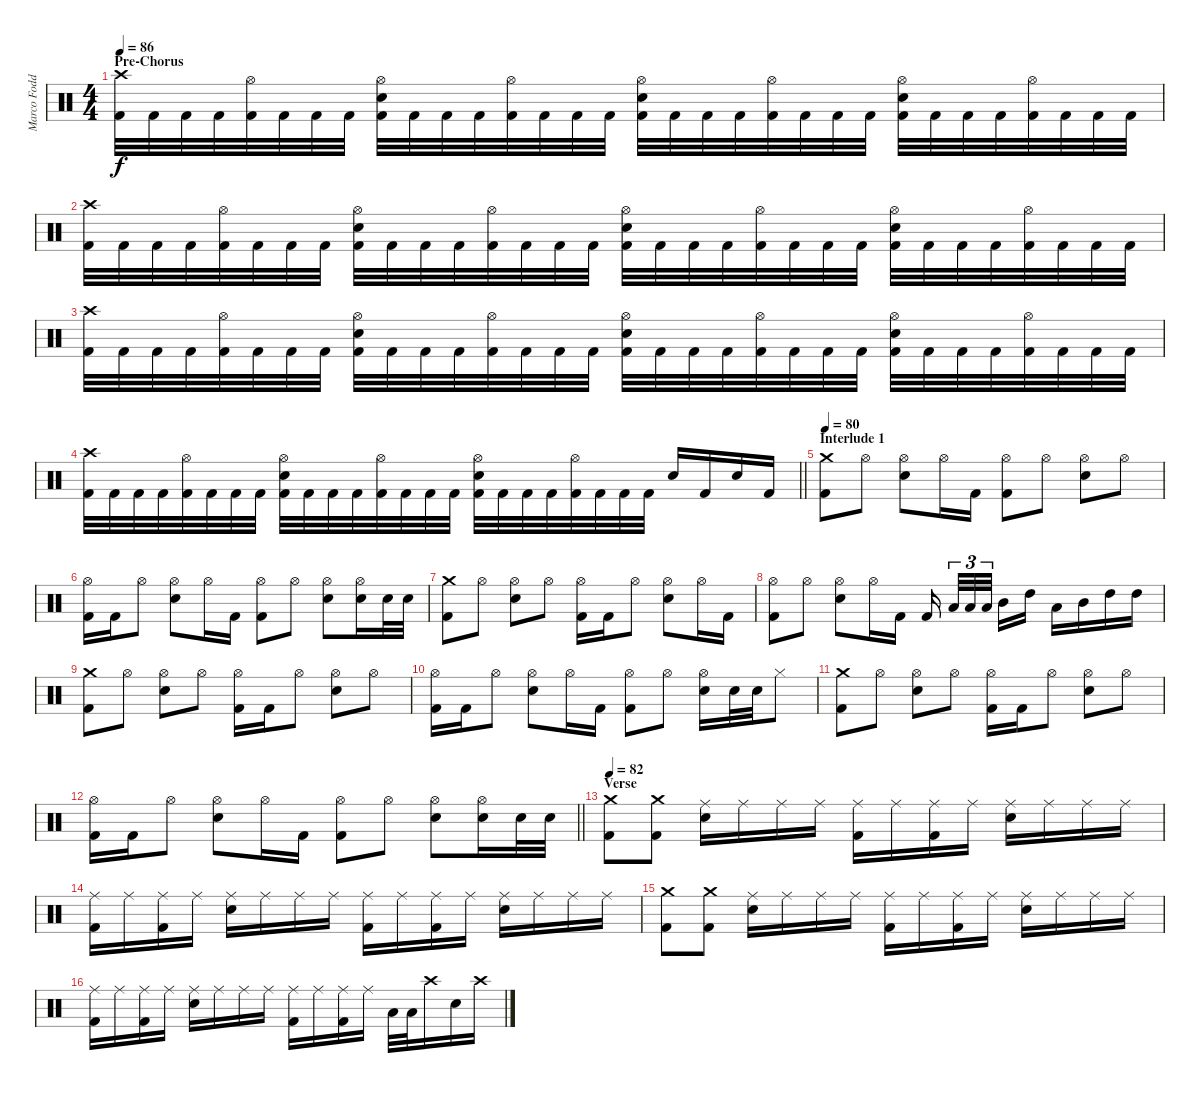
\track ("Marco Foddis" "Marco Fodd") {instrument percussion}
\staff {score}
\articulation defaults
\ts (4 4)
\section ("" "Pre-Chorus")
\tempo 86
\clef neutral
\ks c
("Crash high (hit)" "Kick (hit) 2").32{dy f} "Kick (hit) 2".32 "Kick (hit) 2".32 "Kick (hit) 2".32 ("Hi-Hat (open)" "Kick (hit) 2").32 "Kick (hit) 2".32 "Kick (hit) 2".32 "Kick (hit) 2".32 ("Hi-Hat (open)" "Electric Snare (hit)" "Kick (hit) 2").32 "Kick (hit) 2".32 "Kick (hit) 2".32 "Kick (hit) 2".32 ("Hi-Hat (open)" "Kick (hit) 2").32 "Kick (hit) 2".32 "Kick (hit) 2".32 "Kick (hit) 2".32 ("Hi-Hat (open)" "Electric Snare (hit)" "Kick (hit) 2").32 "Kick (hit) 2".32 "Kick (hit) 2".32 "Kick (hit) 2".32 ("Hi-Hat (open)" "Kick (hit) 2").32 "Kick (hit) 2".32 "Kick (hit) 2".32 "Kick (hit) 2".32 ("Hi-Hat (open)" "Electric Snare (hit)" "Kick (hit) 2").32 "Kick (hit) 2".32 "Kick (hit) 2".32 "Kick (hit) 2".32 ("Hi-Hat (open)" "Kick (hit) 2").32 "Kick (hit) 2".32 "Kick (hit) 2".32 "Kick (hit) 2".32 |
("Crash high (hit)" "Kick (hit) 2").32 "Kick (hit) 2".32 "Kick (hit) 2".32 "Kick (hit) 2".32 ("Hi-Hat (open)" "Kick (hit) 2").32 "Kick (hit) 2".32 "Kick (hit) 2".32 "Kick (hit) 2".32 ("Hi-Hat (open)" "Electric Snare (hit)" "Kick (hit) 2").32 "Kick (hit) 2".32 "Kick (hit) 2".32 "Kick (hit) 2".32 ("Hi-Hat (open)" "Kick (hit) 2").32 "Kick (hit) 2".32 "Kick (hit) 2".32 "Kick (hit) 2".32 ("Hi-Hat (open)" "Electric Snare (hit)" "Kick (hit) 2").32 "Kick (hit) 2".32 "Kick (hit) 2".32 "Kick (hit) 2".32 ("Hi-Hat (open)" "Kick (hit) 2").32 "Kick (hit) 2".32 "Kick (hit) 2".32 "Kick (hit) 2".32 ("Hi-Hat (open)" "Electric Snare (hit)" "Kick (hit) 2").32 "Kick (hit) 2".32 "Kick (hit) 2".32 "Kick (hit) 2".32 ("Hi-Hat (open)" "Kick (hit) 2").32 "Kick (hit) 2".32 "Kick (hit) 2".32 "Kick (hit) 2".32 |
("Crash high (hit)" "Kick (hit) 2").32 "Kick (hit) 2".32 "Kick (hit) 2".32 "Kick (hit) 2".32 ("Hi-Hat (open)" "Kick (hit) 2").32 "Kick (hit) 2".32 "Kick (hit) 2".32 "Kick (hit) 2".32 ("Hi-Hat (open)" "Electric Snare (hit)" "Kick (hit) 2").32 "Kick (hit) 2".32 "Kick (hit) 2".32 "Kick (hit) 2".32 ("Hi-Hat (open)" "Kick (hit) 2").32 "Kick (hit) 2".32 "Kick (hit) 2".32 "Kick (hit) 2".32 ("Hi-Hat (open)" "Electric Snare (hit)" "Kick (hit) 2").32 "Kick (hit) 2".32 "Kick (hit) 2".32 "Kick (hit) 2".32 ("Hi-Hat (open)" "Kick (hit) 2").32 "Kick (hit) 2".32 "Kick (hit) 2".32 "Kick (hit) 2".32 ("Hi-Hat (open)" "Electric Snare (hit)" "Kick (hit) 2").32 "Kick (hit) 2".32 "Kick (hit) 2".32 "Kick (hit) 2".32 ("Hi-Hat (open)" "Kick (hit) 2").32 "Kick (hit) 2".32 "Kick (hit) 2".32 "Kick (hit) 2".32 |
\barLineRight lightlight
("Crash high (hit)" "Kick (hit) 2").32 "Kick (hit) 2".32 "Kick (hit) 2".32 "Kick (hit) 2".32 ("Hi-Hat (open)" "Kick (hit) 2").32 "Kick (hit) 2".32 "Kick (hit) 2".32 "Kick (hit) 2".32 ("Hi-Hat (open)" "Electric Snare (hit)" "Kick (hit) 2").32 "Kick (hit) 2".32 "Kick (hit) 2".32 "Kick (hit) 2".32 ("Hi-Hat (open)" "Kick (hit) 2").32 "Kick (hit) 2".32 "Kick (hit) 2".32 "Kick (hit) 2".32 ("Hi-Hat (open)" "Electric Snare (hit)" "Kick (hit) 2").32 "Kick (hit) 2".32 "Kick (hit) 2".32 "Kick (hit) 2".32 ("Hi-Hat (open)" "Kick (hit) 2").32 "Kick (hit) 2".32 "Kick (hit) 2".32 "Kick (hit) 2".32 "Electric Snare (hit)".16 "Kick (hit) 2".16 "Electric Snare (hit)".16 "Kick (hit) 2".16 |
\section ("" "Interlude 1")
\tempo 80
("Crash medium (hit)" "Kick (hit) 2").8 "Hi-Hat (open)".8 ("Hi-Hat (open)" "Electric Snare (hit)").8 "Hi-Hat (open)".16 "Kick (hit) 2".16 ("Hi-Hat (open)" "Kick (hit) 2").8 "Hi-Hat (open)".8 ("Hi-Hat (open)" "Electric Snare (hit)").8 "Hi-Hat (open)".8 |
("Hi-Hat (open)" "Kick (hit) 2").16 "Kick (hit) 2".16 "Hi-Hat (open)".8 ("Hi-Hat (open)" "Electric Snare (hit)").8 "Hi-Hat (open)".16 "Kick (hit) 2".16 ("Hi-Hat (open)" "Kick (hit) 2").8 "Hi-Hat (open)".8 ("Hi-Hat (open)" "Electric Snare (hit)").8 ("Hi-Hat (open)" "Electric Snare (hit)").16 "Electric Snare (hit)".32 "Electric Snare (hit)".32 |
("Crash medium (hit)" "Kick (hit) 2").8 "Hi-Hat (open)".8 ("Hi-Hat (open)" "Electric Snare (hit)").8 "Hi-Hat (open)".8 ("Hi-Hat (open)" "Kick (hit) 2").16 "Kick (hit) 2".16 "Hi-Hat (open)".8 ("Hi-Hat (open)" "Electric Snare (hit)").8 "Hi-Hat (open)".16 "Kick (hit) 2".16 |
("Hi-Hat (open)" "Kick (hit) 2").8 "Hi-Hat (open)".8 ("Hi-Hat (open)" "Electric Snare (hit)").8 "Hi-Hat (open)".16 "Kick (hit) 2".16 "Kick (hit) 2".16{beam splitsecondary} "Low Tom (hit)".32{tu (3 2)} "Low Tom (hit)".32{tu (3 2)} "Low Tom (hit)".32{tu (3 2) beam splitsecondary} "Mid Tom (hit)".16 "High Tom (hit)".16 "Low Tom (hit)".16 "Mid Tom (hit)".16 "High Tom (hit)".16 "High Tom (hit)".16 |
("Crash medium (hit)" "Kick (hit) 2").8 "Hi-Hat (open)".8 ("Hi-Hat (open)" "Electric Snare (hit)").8 "Hi-Hat (open)".8 ("Hi-Hat (open)" "Kick (hit) 2").16 "Kick (hit) 2".16 "Hi-Hat (open)".8 ("Hi-Hat (open)" "Electric Snare (hit)").8 "Hi-Hat (open)".8 |
("Hi-Hat (open)" "Kick (hit) 2").16 "Kick (hit) 2".16 "Hi-Hat (open)".8 ("Hi-Hat (open)" "Electric Snare (hit)").8 "Hi-Hat (open)".16 "Kick (hit) 2".16 ("Hi-Hat (open)" "Kick (hit) 2").8 "Hi-Hat (open)".8 ("Hi-Hat (open)" "Electric Snare (hit)").16 "Electric Snare (hit)".32 "Electric Snare (hit)".32 "Hi-Hat (closed)".8 |
("Crash medium (hit)" "Kick (hit) 2").8 "Hi-Hat (open)".8 ("Hi-Hat (open)" "Electric Snare (hit)").8 "Hi-Hat (open)".8 ("Hi-Hat (open)" "Kick (hit) 2").16 "Kick (hit) 2".16 "Hi-Hat (open)".8 ("Hi-Hat (open)" "Electric Snare (hit)").8 "Hi-Hat (open)".8 |
\barLineRight lightlight
("Hi-Hat (open)" "Kick (hit) 2").16 "Kick (hit) 2".16 "Hi-Hat (open)".8 ("Hi-Hat (open)" "Electric Snare (hit)").8 "Hi-Hat (open)".16 "Kick (hit) 2".16 ("Hi-Hat (open)" "Kick (hit) 2").8 "Hi-Hat (open)".8 ("Hi-Hat (open)" "Electric Snare (hit)").8 ("Hi-Hat (open)" "Electric Snare (hit)").16 "Electric Snare (hit)".32 "Electric Snare (hit)".32 |
\section ("" "Verse")
\tempo 82
("Crash medium (hit)" "Kick (hit) 2").8 ("Crash medium (hit)" "Kick (hit) 2").8 ("Ride (middle)" "Electric Snare (hit)").16 "Ride (middle)".16 "Ride (middle)".16 "Ride (middle)".16 ("Ride (middle)" "Kick (hit) 2").16 "Ride (middle)".16 ("Ride (middle)" "Kick (hit) 2").16 "Ride (middle)".16 ("Ride (middle)" "Electric Snare (hit)").16 "Ride (middle)".16 "Ride (middle)".16 "Ride (middle)".16 |
("Ride (middle)" "Kick (hit) 2").16 "Ride (middle)".16 ("Ride (middle)" "Kick (hit) 2").16 "Ride (middle)".16 ("Ride (middle)" "Electric Snare (hit)").16 "Ride (middle)".16 "Ride (middle)".16 "Ride (middle)".16 ("Ride (middle)" "Kick (hit) 2").16 "Ride (middle)".16 ("Ride (middle)" "Kick (hit) 2").16 "Ride (middle)".16 ("Ride (middle)" "Electric Snare (hit)").16 "Ride (middle)".16 "Ride (middle)".16 "Ride (middle)".16 |
("Crash medium (hit)" "Kick (hit) 2").8 ("Crash medium (hit)" "Kick (hit) 2").8 ("Ride (middle)" "Electric Snare (hit)").16 "Ride (middle)".16 "Ride (middle)".16 "Ride (middle)".16 ("Ride (middle)" "Kick (hit) 2").16 "Ride (middle)".16 ("Ride (middle)" "Kick (hit) 2").16 "Ride (middle)".16 ("Ride (middle)" "Electric Snare (hit)").16 "Ride (middle)".16 "Ride (middle)".16 "Ride (middle)".16 |
("Ride (middle)" "Kick (hit) 2").16 "Ride (middle)".16 ("Ride (middle)" "Kick (hit) 2").16 "Ride (middle)".16 ("Ride (middle)" "Electric Snare (hit)").16 "Ride (middle)".16 "Ride (middle)".16 "Ride (middle)".16 ("Ride (middle)" "Kick (hit) 2").16 "Ride (middle)".16 ("Ride (middle)" "Kick (hit) 2").16 "Ride (middle)".16 "Low Tom (hit)".32 "Low Tom (hit)".32 "Crash high (hit)".16 "Electric Snare (hit)".16 "Crash high (hit)".16
